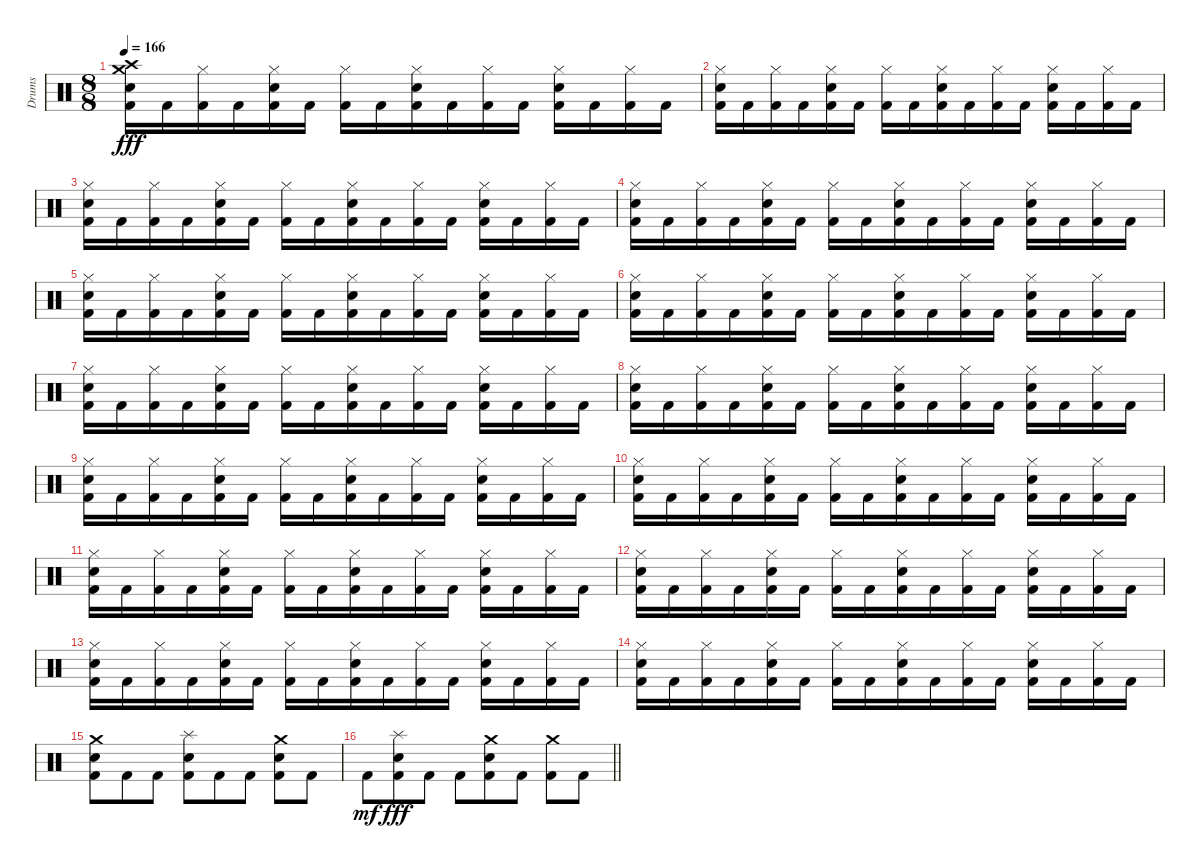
\track ("Drums" "Drums") {instrument percussion}
\staff {score}
\articulation defaults
\ts (8 8)
\section ("" "")
\tempo 166
\clef neutral
\ks c
("Crash high (hit)" "Crash medium (hit)" "Electric Snare (hit)" "Kick (hit) 2").16{dy fff} "Kick (hit) 2".16 ("Hi-Hat (closed)" "Kick (hit) 2").16 "Kick (hit) 2".16 ("Hi-Hat (closed)" "Electric Snare (hit)" "Kick (hit) 2").16 "Kick (hit) 2".16 ("Hi-Hat (closed)" "Kick (hit) 2").16 "Kick (hit) 2".16 ("Hi-Hat (closed)" "Electric Snare (hit)" "Kick (hit) 2").16 "Kick (hit) 2".16 ("Hi-Hat (closed)" "Kick (hit) 2").16 "Kick (hit) 2".16 ("Hi-Hat (closed)" "Electric Snare (hit)" "Kick (hit) 2").16 "Kick (hit) 2".16 ("Hi-Hat (closed)" "Kick (hit) 2").16 "Kick (hit) 2".16 |
("Hi-Hat (closed)" "Electric Snare (hit)" "Kick (hit) 2").16 "Kick (hit) 2".16 ("Hi-Hat (closed)" "Kick (hit) 2").16 "Kick (hit) 2".16 ("Hi-Hat (closed)" "Electric Snare (hit)" "Kick (hit) 2").16 "Kick (hit) 2".16 ("Hi-Hat (closed)" "Kick (hit) 2").16 "Kick (hit) 2".16 ("Hi-Hat (closed)" "Electric Snare (hit)" "Kick (hit) 2").16 "Kick (hit) 2".16 ("Hi-Hat (closed)" "Kick (hit) 2").16 "Kick (hit) 2".16 ("Hi-Hat (closed)" "Electric Snare (hit)" "Kick (hit) 2").16 "Kick (hit) 2".16 ("Hi-Hat (closed)" "Kick (hit) 2").16 "Kick (hit) 2".16 |
("Hi-Hat (closed)" "Electric Snare (hit)" "Kick (hit) 2").16 "Kick (hit) 2".16 ("Hi-Hat (closed)" "Kick (hit) 2").16 "Kick (hit) 2".16 ("Hi-Hat (closed)" "Electric Snare (hit)" "Kick (hit) 2").16 "Kick (hit) 2".16 ("Hi-Hat (closed)" "Kick (hit) 2").16 "Kick (hit) 2".16 ("Hi-Hat (closed)" "Electric Snare (hit)" "Kick (hit) 2").16 "Kick (hit) 2".16 ("Hi-Hat (closed)" "Kick (hit) 2").16 "Kick (hit) 2".16 ("Hi-Hat (closed)" "Electric Snare (hit)" "Kick (hit) 2").16 "Kick (hit) 2".16 ("Hi-Hat (closed)" "Kick (hit) 2").16 "Kick (hit) 2".16 |
("Hi-Hat (closed)" "Electric Snare (hit)" "Kick (hit) 2").16 "Kick (hit) 2".16 ("Hi-Hat (closed)" "Kick (hit) 2").16 "Kick (hit) 2".16 ("Hi-Hat (closed)" "Electric Snare (hit)" "Kick (hit) 2").16 "Kick (hit) 2".16 ("Hi-Hat (closed)" "Kick (hit) 2").16 "Kick (hit) 2".16 ("Hi-Hat (closed)" "Electric Snare (hit)" "Kick (hit) 2").16 "Kick (hit) 2".16 ("Hi-Hat (closed)" "Kick (hit) 2").16 "Kick (hit) 2".16 ("Hi-Hat (closed)" "Electric Snare (hit)" "Kick (hit) 2").16 "Kick (hit) 2".16 ("Hi-Hat (closed)" "Kick (hit) 2").16 "Kick (hit) 2".16 |
("Hi-Hat (closed)" "Electric Snare (hit)" "Kick (hit) 2").16 "Kick (hit) 2".16 ("Hi-Hat (closed)" "Kick (hit) 2").16 "Kick (hit) 2".16 ("Hi-Hat (closed)" "Electric Snare (hit)" "Kick (hit) 2").16 "Kick (hit) 2".16 ("Hi-Hat (closed)" "Kick (hit) 2").16 "Kick (hit) 2".16 ("Hi-Hat (closed)" "Electric Snare (hit)" "Kick (hit) 2").16 "Kick (hit) 2".16 ("Hi-Hat (closed)" "Kick (hit) 2").16 "Kick (hit) 2".16 ("Hi-Hat (closed)" "Electric Snare (hit)" "Kick (hit) 2").16 "Kick (hit) 2".16 ("Hi-Hat (closed)" "Kick (hit) 2").16 "Kick (hit) 2".16 |
("Hi-Hat (closed)" "Electric Snare (hit)" "Kick (hit) 2").16 "Kick (hit) 2".16 ("Hi-Hat (closed)" "Kick (hit) 2").16 "Kick (hit) 2".16 ("Hi-Hat (closed)" "Electric Snare (hit)" "Kick (hit) 2").16 "Kick (hit) 2".16 ("Hi-Hat (closed)" "Kick (hit) 2").16 "Kick (hit) 2".16 ("Hi-Hat (closed)" "Electric Snare (hit)" "Kick (hit) 2").16 "Kick (hit) 2".16 ("Hi-Hat (closed)" "Kick (hit) 2").16 "Kick (hit) 2".16 ("Hi-Hat (closed)" "Electric Snare (hit)" "Kick (hit) 2").16 "Kick (hit) 2".16 ("Hi-Hat (closed)" "Kick (hit) 2").16 "Kick (hit) 2".16 |
("Hi-Hat (closed)" "Electric Snare (hit)" "Kick (hit) 2").16 "Kick (hit) 2".16 ("Hi-Hat (closed)" "Kick (hit) 2").16 "Kick (hit) 2".16 ("Hi-Hat (closed)" "Electric Snare (hit)" "Kick (hit) 2").16 "Kick (hit) 2".16 ("Hi-Hat (closed)" "Kick (hit) 2").16 "Kick (hit) 2".16 ("Hi-Hat (closed)" "Electric Snare (hit)" "Kick (hit) 2").16 "Kick (hit) 2".16 ("Hi-Hat (closed)" "Kick (hit) 2").16 "Kick (hit) 2".16 ("Hi-Hat (closed)" "Electric Snare (hit)" "Kick (hit) 2").16 "Kick (hit) 2".16 ("Hi-Hat (closed)" "Kick (hit) 2").16 "Kick (hit) 2".16 |
("Hi-Hat (closed)" "Electric Snare (hit)" "Kick (hit) 2").16 "Kick (hit) 2".16 ("Hi-Hat (closed)" "Kick (hit) 2").16 "Kick (hit) 2".16 ("Hi-Hat (closed)" "Electric Snare (hit)" "Kick (hit) 2").16 "Kick (hit) 2".16 ("Hi-Hat (closed)" "Kick (hit) 2").16 "Kick (hit) 2".16 ("Hi-Hat (closed)" "Electric Snare (hit)" "Kick (hit) 2").16 "Kick (hit) 2".16 ("Hi-Hat (closed)" "Kick (hit) 2").16 "Kick (hit) 2".16 ("Hi-Hat (closed)" "Electric Snare (hit)" "Kick (hit) 2").16 "Kick (hit) 2".16 ("Hi-Hat (closed)" "Kick (hit) 2").16 "Kick (hit) 2".16 |
("Hi-Hat (closed)" "Electric Snare (hit)" "Kick (hit) 2").16 "Kick (hit) 2".16 ("Hi-Hat (closed)" "Kick (hit) 2").16 "Kick (hit) 2".16 ("Hi-Hat (closed)" "Electric Snare (hit)" "Kick (hit) 2").16 "Kick (hit) 2".16 ("Hi-Hat (closed)" "Kick (hit) 2").16 "Kick (hit) 2".16 ("Hi-Hat (closed)" "Electric Snare (hit)" "Kick (hit) 2").16 "Kick (hit) 2".16 ("Hi-Hat (closed)" "Kick (hit) 2").16 "Kick (hit) 2".16 ("Hi-Hat (closed)" "Electric Snare (hit)" "Kick (hit) 2").16 "Kick (hit) 2".16 ("Hi-Hat (closed)" "Kick (hit) 2").16 "Kick (hit) 2".16 |
("Hi-Hat (closed)" "Electric Snare (hit)" "Kick (hit) 2").16 "Kick (hit) 2".16 ("Hi-Hat (closed)" "Kick (hit) 2").16 "Kick (hit) 2".16 ("Hi-Hat (closed)" "Electric Snare (hit)" "Kick (hit) 2").16 "Kick (hit) 2".16 ("Hi-Hat (closed)" "Kick (hit) 2").16 "Kick (hit) 2".16 ("Hi-Hat (closed)" "Electric Snare (hit)" "Kick (hit) 2").16 "Kick (hit) 2".16 ("Hi-Hat (closed)" "Kick (hit) 2").16 "Kick (hit) 2".16 ("Hi-Hat (closed)" "Electric Snare (hit)" "Kick (hit) 2").16 "Kick (hit) 2".16 ("Hi-Hat (closed)" "Kick (hit) 2").16 "Kick (hit) 2".16 |
("Hi-Hat (closed)" "Electric Snare (hit)" "Kick (hit) 2").16 "Kick (hit) 2".16 ("Hi-Hat (closed)" "Kick (hit) 2").16 "Kick (hit) 2".16 ("Hi-Hat (closed)" "Electric Snare (hit)" "Kick (hit) 2").16 "Kick (hit) 2".16 ("Hi-Hat (closed)" "Kick (hit) 2").16 "Kick (hit) 2".16 ("Hi-Hat (closed)" "Electric Snare (hit)" "Kick (hit) 2").16 "Kick (hit) 2".16 ("Hi-Hat (closed)" "Kick (hit) 2").16 "Kick (hit) 2".16 ("Hi-Hat (closed)" "Electric Snare (hit)" "Kick (hit) 2").16 "Kick (hit) 2".16 ("Hi-Hat (closed)" "Kick (hit) 2").16 "Kick (hit) 2".16 |
("Hi-Hat (closed)" "Electric Snare (hit)" "Kick (hit) 2").16 "Kick (hit) 2".16 ("Hi-Hat (closed)" "Kick (hit) 2").16 "Kick (hit) 2".16 ("Hi-Hat (closed)" "Electric Snare (hit)" "Kick (hit) 2").16 "Kick (hit) 2".16 ("Hi-Hat (closed)" "Kick (hit) 2").16 "Kick (hit) 2".16 ("Hi-Hat (closed)" "Electric Snare (hit)" "Kick (hit) 2").16 "Kick (hit) 2".16 ("Hi-Hat (closed)" "Kick (hit) 2").16 "Kick (hit) 2".16 ("Hi-Hat (closed)" "Electric Snare (hit)" "Kick (hit) 2").16 "Kick (hit) 2".16 ("Hi-Hat (closed)" "Kick (hit) 2").16 "Kick (hit) 2".16 |
("Hi-Hat (closed)" "Electric Snare (hit)" "Kick (hit) 2").16 "Kick (hit) 2".16 ("Hi-Hat (closed)" "Kick (hit) 2").16 "Kick (hit) 2".16 ("Hi-Hat (closed)" "Electric Snare (hit)" "Kick (hit) 2").16 "Kick (hit) 2".16 ("Hi-Hat (closed)" "Kick (hit) 2").16 "Kick (hit) 2".16 ("Hi-Hat (closed)" "Electric Snare (hit)" "Kick (hit) 2").16 "Kick (hit) 2".16 ("Hi-Hat (closed)" "Kick (hit) 2").16 "Kick (hit) 2".16 ("Hi-Hat (closed)" "Electric Snare (hit)" "Kick (hit) 2").16 "Kick (hit) 2".16 ("Hi-Hat (closed)" "Kick (hit) 2").16 "Kick (hit) 2".16 |
("Hi-Hat (closed)" "Electric Snare (hit)" "Kick (hit) 2").16 "Kick (hit) 2".16 ("Hi-Hat (closed)" "Kick (hit) 2").16 "Kick (hit) 2".16 ("Hi-Hat (closed)" "Electric Snare (hit)" "Kick (hit) 2").16 "Kick (hit) 2".16 ("Hi-Hat (closed)" "Kick (hit) 2").16 "Kick (hit) 2".16 ("Hi-Hat (closed)" "Electric Snare (hit)" "Kick (hit) 2").16 "Kick (hit) 2".16 ("Hi-Hat (closed)" "Kick (hit) 2").16 "Kick (hit) 2".16 ("Hi-Hat (closed)" "Electric Snare (hit)" "Kick (hit) 2").16 "Kick (hit) 2".16 ("Hi-Hat (closed)" "Kick (hit) 2").16 "Kick (hit) 2".16 |
("Crash medium (hit)" "Electric Snare (hit)" "Kick (hit) 2").8 "Kick (hit) 2".8 "Kick (hit) 2".8 ("Splash (hit)" "Electric Snare (hit)" "Kick (hit) 2").8 "Kick (hit) 2".8 "Kick (hit) 2".8 ("Crash medium (hit)" "Electric Snare (hit)" "Kick (hit) 2").8 "Kick (hit) 2".8 |
\barLineRight lightlight "Kick (hit) 2".8{dy mf}
("Splash (hit)" "Electric Snare (hit)" "Kick (hit) 2").8{dy fff} "Kick (hit) 2".8 "Kick (hit) 2".8 ("Crash medium (hit)" "Electric Snare (hit)" "Kick (hit) 2").8 "Kick (hit) 2".8 ("Crash medium (hit)" "Kick (hit) 2").8 "Kick (hit) 2".8
